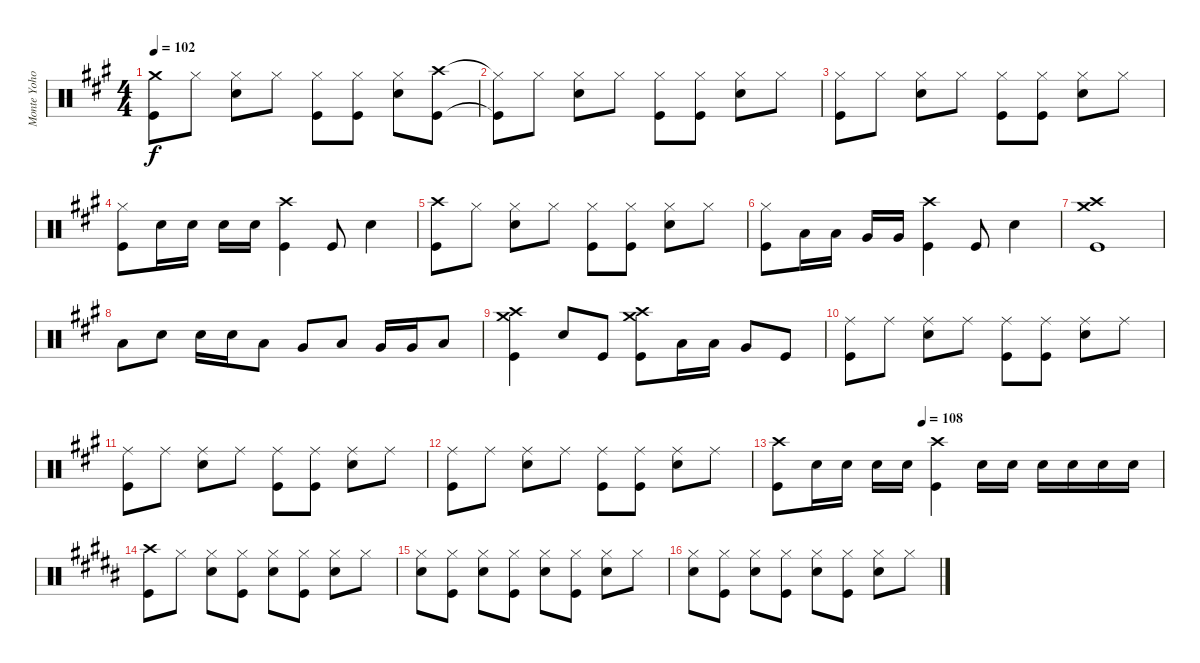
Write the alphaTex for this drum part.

\track ("Monte Yoho Drums" "Monte Yoho") {instrument percussion}
\staff {score}
\articulation defaults
\ts (4 4)
\tempo 102
\clef neutral
\ks a
("Crash medium (hit)" "Kick (hit)").8{dy f} "Hi-Hat (closed)".8 ("Hi-Hat (closed)" "Snare (hit) 2").8 "Hi-Hat (closed)".8 ("Hi-Hat (closed)" "Kick (hit)").8 ("Hi-Hat (closed)" "Kick (hit)").8 ("Hi-Hat (closed)" "Snare (hit) 2").8 ("Crash high (hit)" "Kick (hit)").8 |
("Hi-Hat (closed)"{t} "Kick (hit)"{t}).8 "Hi-Hat (closed)".8 ("Hi-Hat (closed)" "Snare (hit) 2").8 "Hi-Hat (closed)".8 ("Hi-Hat (closed)" "Kick (hit)").8 ("Hi-Hat (closed)" "Kick (hit)").8 ("Hi-Hat (closed)" "Snare (hit) 2").8 "Hi-Hat (closed)".8 |
("Hi-Hat (closed)" "Kick (hit)").8 "Hi-Hat (closed)".8 ("Hi-Hat (closed)" "Snare (hit) 2").8 "Hi-Hat (closed)".8 ("Hi-Hat (closed)" "Kick (hit)").8 ("Hi-Hat (closed)" "Kick (hit)").8 ("Hi-Hat (closed)" "Snare (hit) 2").8 "Hi-Hat (closed)".8 |
("Hi-Hat (closed)" "Kick (hit)").8 "Snare (hit) 2".16 "Snare (hit) 2".16 "Snare (hit) 2".16 "Snare (hit) 2".16 ("Crash high (hit)" "Kick (hit)").4 "Kick (hit)".8 "Snare (hit) 2".4 |
("Crash high (hit)" "Kick (hit)").8 "Hi-Hat (closed)".8 ("Hi-Hat (closed)" "Snare (hit) 2").8 "Hi-Hat (closed)".8 ("Hi-Hat (closed)" "Kick (hit)").8 ("Hi-Hat (closed)" "Kick (hit)").8 ("Hi-Hat (closed)" "Snare (hit) 2").8 "Hi-Hat (closed)".8 |
("Hi-Hat (closed)" "Kick (hit)").8 "Low Tom (hit)".16 "Low Tom (hit)".16 "Very Low Tom (hit)".16 "Very Low Tom (hit)".16 ("Crash high (hit)" "Kick (hit)").4 "Kick (hit)".8 "Snare (hit) 2".4 |
("Crash high (hit)" "Crash medium (hit)" "Kick (hit)").1 |
"Low Tom (hit)".8 "Snare (hit) 2".8 "Snare (hit) 2".16 "Snare (hit) 2".16 "Low Tom (hit)".8 "Very Low Tom (hit)".8 "Low Floor Tom (hit)".8 "Very Low Tom (hit)".16 "Very Low Tom (hit)".16 "Low Floor Tom (hit)".8 |
("Crash high (hit)" "Crash medium (hit)" "Kick (hit)").4 "Snare (hit) 2".8 "Kick (hit)".8 ("Crash high (hit)" "Crash medium (hit)" "Kick (hit)").8 "Low Tom (hit)".16 "Low Tom (hit)".16 "Very Low Tom (hit)".8 "Kick (hit)".8 |
("Ride (middle)" "Kick (hit)").8 "Ride (middle)".8 ("Ride (middle)" "Snare (hit) 2").8 "Ride (middle)".8 ("Ride (middle)" "Kick (hit)").8 ("Ride (middle)" "Kick (hit)").8 ("Ride (middle)" "Snare (hit) 2").8 "Ride (middle)".8 |
("Ride (middle)" "Kick (hit)").8 "Ride (middle)".8 ("Ride (middle)" "Snare (hit) 2").8 "Ride (middle)".8 ("Ride (middle)" "Kick (hit)").8 ("Ride (middle)" "Kick (hit)").8 ("Ride (middle)" "Snare (hit) 2").8 "Ride (middle)".8 |
("Ride (middle)" "Kick (hit)").8 "Ride (middle)".8 ("Ride (middle)" "Snare (hit) 2").8 "Ride (middle)".8 ("Ride (middle)" "Kick (hit)").8 ("Ride (middle)" "Kick (hit)").8 ("Ride (middle)" "Snare (hit) 2").8 "Ride (middle)".8 |
\tempo (108 0.375)
("Crash high (hit)" "Kick (hit)").8 "Snare (hit) 2".16 "Snare (hit) 2".16 "Snare (hit) 2".16 "Snare (hit) 2".16 ("Crash high (hit)" "Kick (hit)").4 "Snare (hit) 2".16 "Snare (hit) 2".16 "Snare (hit) 2".16 "Snare (hit) 2".16 "Snare (hit) 2".16 "Snare (hit) 2".16 |
\ks b
("Crash high (hit)" "Kick (hit)").8 "Hi-Hat (closed)".8 ("Hi-Hat (closed)" "Snare (hit) 2").8 ("Hi-Hat (closed)" "Kick (hit)").8 ("Hi-Hat (closed)" "Snare (hit) 2").8 ("Hi-Hat (closed)" "Kick (hit)").8 ("Hi-Hat (closed)" "Snare (hit) 2").8 "Hi-Hat (closed)".8 |
("Hi-Hat (closed)" "Snare (hit) 2").8 ("Hi-Hat (closed)" "Kick (hit)").8 ("Hi-Hat (closed)" "Snare (hit) 2").8 ("Hi-Hat (closed)" "Kick (hit)").8 ("Hi-Hat (closed)" "Snare (hit) 2").8 ("Hi-Hat (closed)" "Kick (hit)").8 ("Hi-Hat (closed)" "Snare (hit) 2").8 "Hi-Hat (closed)".8 |
("Hi-Hat (closed)" "Snare (hit) 2").8 ("Hi-Hat (closed)" "Kick (hit)").8 ("Hi-Hat (closed)" "Snare (hit) 2").8 ("Hi-Hat (closed)" "Kick (hit)").8 ("Hi-Hat (closed)" "Snare (hit) 2").8 ("Hi-Hat (closed)" "Kick (hit)").8 ("Hi-Hat (closed)" "Snare (hit) 2").8 "Hi-Hat (closed)".8
